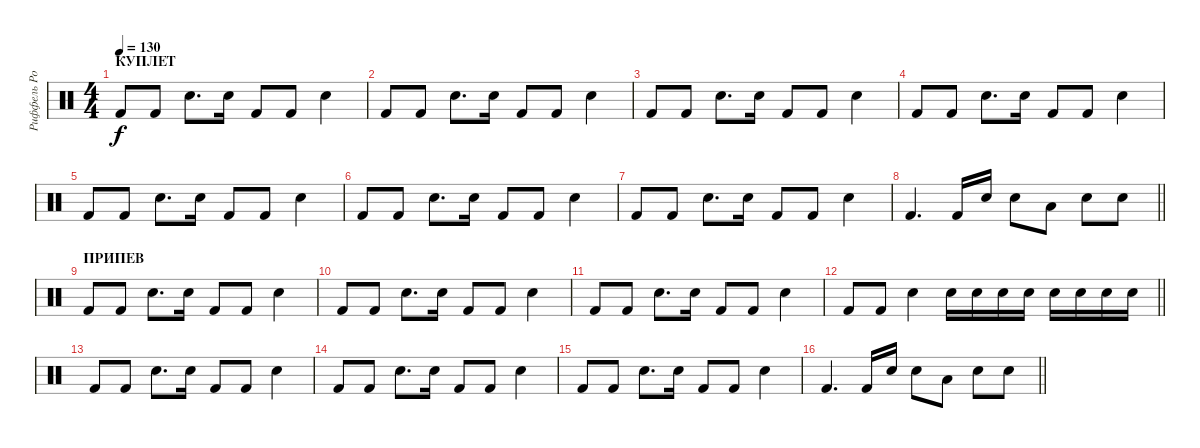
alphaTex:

\track ("Риффель Роман(Главные)" "Риффель Ро") {instrument percussion}
\staff {score}
\articulation defaults
\ts (4 4)
\section ("" "КУПЛЕТ")
\tempo 130
\clef neutral
\ks c "Kick (hit) 2".8{dy f} "Kick (hit) 2".8 "Electric Snare (hit)".8{d} "Electric Snare (hit)".16 "Kick (hit) 2".8 "Kick (hit) 2".8 "Electric Snare (hit)".4
|
"Kick (hit) 2".8 "Kick (hit) 2".8 "Electric Snare (hit)".8{d} "Electric Snare (hit)".16 "Kick (hit) 2".8 "Kick (hit) 2".8 "Electric Snare (hit)".4 |
"Kick (hit) 2".8 "Kick (hit) 2".8 "Electric Snare (hit)".8{d} "Electric Snare (hit)".16 "Kick (hit) 2".8 "Kick (hit) 2".8 "Electric Snare (hit)".4 |
"Kick (hit) 2".8 "Kick (hit) 2".8 "Electric Snare (hit)".8{d} "Electric Snare (hit)".16 "Kick (hit) 2".8 "Kick (hit) 2".8 "Electric Snare (hit)".4 |
"Kick (hit) 2".8 "Kick (hit) 2".8 "Electric Snare (hit)".8{d} "Electric Snare (hit)".16 "Kick (hit) 2".8 "Kick (hit) 2".8 "Electric Snare (hit)".4 |
"Kick (hit) 2".8 "Kick (hit) 2".8 "Electric Snare (hit)".8{d} "Electric Snare (hit)".16 "Kick (hit) 2".8 "Kick (hit) 2".8 "Electric Snare (hit)".4 |
"Kick (hit) 2".8 "Kick (hit) 2".8 "Electric Snare (hit)".8{d} "Electric Snare (hit)".16 "Kick (hit) 2".8 "Kick (hit) 2".8 "Electric Snare (hit)".4 |
\barLineRight lightlight "Kick (hit) 2".4{d} "Kick (hit) 2".16 "Electric Snare (hit)".16 "Electric Snare (hit)".8 "Low Tom (hit)".8 "Electric Snare (hit)".8 "Electric Snare (hit)".8
|
\section ("" "ПРИПЕВ")
"Kick (hit) 2".8 "Kick (hit) 2".8 "Electric Snare (hit)".8{d} "Electric Snare (hit)".16 "Kick (hit) 2".8 "Kick (hit) 2".8 "Electric Snare (hit)".4 |
"Kick (hit) 2".8 "Kick (hit) 2".8 "Electric Snare (hit)".8{d} "Electric Snare (hit)".16 "Kick (hit) 2".8 "Kick (hit) 2".8 "Electric Snare (hit)".4 |
"Kick (hit) 2".8 "Kick (hit) 2".8 "Electric Snare (hit)".8{d} "Electric Snare (hit)".16 "Kick (hit) 2".8 "Kick (hit) 2".8 "Electric Snare (hit)".4 |
\barLineRight lightlight "Kick (hit) 2".8 "Kick (hit) 2".8 "Electric Snare (hit)".4 "Electric Snare (hit)".16 "Electric Snare (hit)".16 "Electric Snare (hit)".16 "Electric Snare (hit)".16 "Electric Snare (hit)".16 "Electric Snare (hit)".16 "Electric Snare (hit)".16 "Electric Snare (hit)".16
|
"Kick (hit) 2".8 "Kick (hit) 2".8 "Electric Snare (hit)".8{d} "Electric Snare (hit)".16 "Kick (hit) 2".8 "Kick (hit) 2".8 "Electric Snare (hit)".4 |
"Kick (hit) 2".8 "Kick (hit) 2".8 "Electric Snare (hit)".8{d} "Electric Snare (hit)".16 "Kick (hit) 2".8 "Kick (hit) 2".8 "Electric Snare (hit)".4 |
"Kick (hit) 2".8 "Kick (hit) 2".8 "Electric Snare (hit)".8{d} "Electric Snare (hit)".16 "Kick (hit) 2".8 "Kick (hit) 2".8 "Electric Snare (hit)".4 |
\barLineRight lightlight "Kick (hit) 2".4{d} "Kick (hit) 2".16 "Electric Snare (hit)".16 "Electric Snare (hit)".8 "Low Tom (hit)".8 "Electric Snare (hit)".8 "Electric Snare (hit)".8
